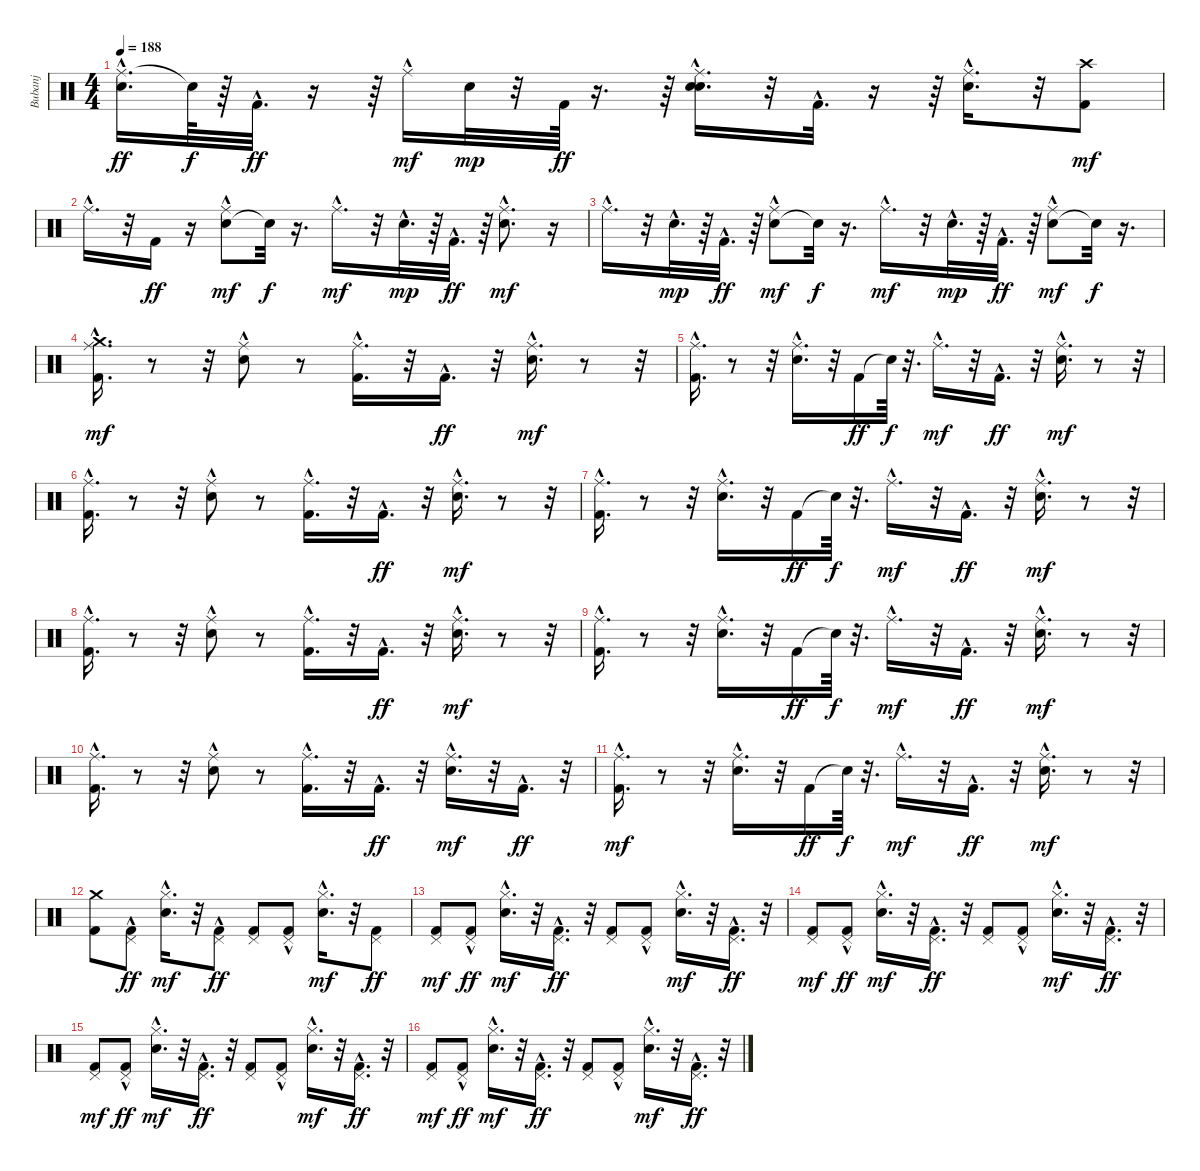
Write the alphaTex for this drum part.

\track ("Bubanj" "Bubanj") {instrument percussion}
\staff {score}
\articulation defaults
\ts (4 4)
\tempo 188
\clef neutral
\ks c
("Ride (middle)"{hac} "Electric Snare (hit)"{hac}).16{d dy ff} "Snare (hit)"{t}.64{dy f} r.64 "Kick (hit) 2"{hac}.32{d dy ff} r.16 r.64 "Ride (middle)"{hac}.16{dy mf} "Electric Snare (hit)".32{dy mp} r.32 "Kick (hit) 2".64{dy ff} r.16{d} r.64 ("Ride (middle)"{hac} "Electric Snare (hit)" "Electric Snare (hit)").16{d} r.32 "Kick (hit) 2"{hac}.32{d} r.16 r.64 ("Ride (middle)"{hac} "Electric Snare (hit)").16{d} r.32 ("Kick (hit) 2" "Crash high (hit)").8{dy mf} |
"Ride (middle)"{hac}.16{d} r.32 "Kick (hit) 2".16{dy ff} r.16 ("Electric Snare (hit)" "Ride (middle)"{hac}).8{dy mf} "Snare (hit)"{t}.32{dy f} r.16{d} "Ride (middle)"{hac}.16{d dy mf} r.32 "Electric Snare (hit)"{hac}.32{d dy mp} r.64 "Kick (hit) 2"{hac}.32{d dy ff} r.64 ("Electric Snare (hit)"{hac} "Ride (middle)"{hac}).8{d dy mf} r.16 |
"Ride (middle)"{hac}.16{d} r.32 "Electric Snare (hit)"{hac}.32{d dy mp} r.64 "Kick (hit) 2"{hac}.32{d dy ff} r.64 ("Electric Snare (hit)" "Ride (middle)"{hac}).8{dy mf} "Snare (hit)"{t}.32{dy f} r.16{d} "Ride (middle)"{hac}.16{d dy mf} r.32 "Electric Snare (hit)"{hac}.32{d dy mp} r.64 "Kick (hit) 2"{hac}.32{d dy ff} r.64 ("Electric Snare (hit)" "Ride (middle)"{hac}).8{dy mf} "Snare (hit)"{t}.32{dy f} r.16{d} |
("Kick (hit) 2"{hac} "Ride (middle)"{hac} "Crash medium (hit)"{hac}).16{d dy mf} r.8 r.32 ("Electric Snare (hit)" "Ride (middle)"{hac}).8 r.8 ("Kick (hit) 2" "Ride (middle)"{hac}).16{d} r.32 "Kick (hit) 2"{hac}.16{d dy ff} r.32 ("Electric Snare (hit)" "Ride (middle)"{hac}).16{d dy mf} r.8 r.32 |
("Kick (hit) 2"{hac} "Ride (middle)"{hac}).16{d} r.8 r.32 ("Electric Snare (hit)" "Ride (middle)"{hac}).16{d} r.32 "Kick (hit) 2".16{dy ff} "Snare (hit)"{t}.64{dy f} r.32{d} "Ride (middle)"{hac}.16{d dy mf} r.32 "Kick (hit) 2"{hac}.16{d dy ff} r.32 ("Electric Snare (hit)" "Ride (middle)"{hac}).16{d dy mf} r.8 r.32 |
("Kick (hit) 2"{hac} "Ride (middle)"{hac}).16{d} r.8 r.32 ("Electric Snare (hit)" "Ride (middle)"{hac}).8 r.8 ("Kick (hit) 2" "Ride (middle)"{hac}).16{d} r.32 "Kick (hit) 2"{hac}.16{d dy ff} r.32 ("Electric Snare (hit)" "Ride (middle)"{hac}).16{d dy mf} r.8 r.32 |
("Kick (hit) 2"{hac} "Ride (middle)"{hac}).16{d} r.8 r.32 ("Electric Snare (hit)" "Ride (middle)"{hac}).16{d} r.32 "Kick (hit) 2".16{dy ff} "Snare (hit)"{t}.64{dy f} r.32{d} "Ride (middle)"{hac}.16{d dy mf} r.32 "Kick (hit) 2"{hac}.16{d dy ff} r.32 ("Electric Snare (hit)" "Ride (middle)"{hac}).16{d dy mf} r.8 r.32 |
("Kick (hit) 2"{hac} "Ride (middle)"{hac}).16{d} r.8 r.32 ("Electric Snare (hit)" "Ride (middle)"{hac}).8 r.8 ("Kick (hit) 2" "Ride (middle)"{hac}).16{d} r.32 "Kick (hit) 2"{hac}.16{d dy ff} r.32 ("Electric Snare (hit)" "Ride (middle)"{hac}).16{d dy mf} r.8 r.32 |
("Kick (hit) 2"{hac} "Ride (middle)"{hac}).16{d} r.8 r.32 ("Electric Snare (hit)" "Ride (middle)"{hac}).16{d} r.32 "Kick (hit) 2".16{dy ff} "Snare (hit)"{t}.64{dy f} r.32{d} "Ride (middle)"{hac}.16{d dy mf} r.32 "Kick (hit) 2"{hac}.16{d dy ff} r.32 ("Electric Snare (hit)" "Ride (middle)"{hac}).16{d dy mf} r.8 r.32 |
("Kick (hit) 2"{hac} "Ride (middle)"{hac}).16{d} r.8 r.32 ("Electric Snare (hit)" "Ride (middle)"{hac}).8 r.8 ("Kick (hit) 2" "Ride (middle)"{hac}).16{d} r.32 "Kick (hit) 2"{hac}.16{d dy ff} r.32 ("Electric Snare (hit)" "Ride (middle)"{hac}).16{d dy mf} r.32 "Kick (hit) 2"{hac}.16{d dy ff} r.32 |
("Kick (hit) 2"{hac} "Ride (middle)"{hac}).16{d dy mf} r.8 r.32 ("Electric Snare (hit)" "Ride (middle)"{hac}).16{d} r.32 "Kick (hit) 2".16{dy ff} "Snare (hit)"{t}.64{dy f} r.32{d} "Ride (middle)"{hac}.16{d dy mf} r.32 "Kick (hit) 2"{hac}.16{d dy ff} r.32 ("Electric Snare (hit)" "Ride (middle)"{hac}).16{d dy mf} r.8 r.32 |
("Kick (hit) 2" "Crash medium (hit)").8 ("Pedal Hi-Hat (hit)"{hac} "Kick (hit) 2").8{dy ff} ("Electric Snare (hit)"{hac} "Hi-Hat (closed)").16{d dy mf} r.32 ("Pedal Hi-Hat (hit)"{hac} "Kick (hit) 2").8{dy ff} ("Pedal Hi-Hat (hit)" "Kick (hit) 2").8 ("Pedal Hi-Hat (hit)"{hac} "Kick (hit) 2").8 ("Electric Snare (hit)"{hac} "Hi-Hat (closed)").16{d dy mf} r.32 ("Pedal Hi-Hat (hit)" "Kick (hit) 2").8{dy ff} |
("Kick (hit) 2" "Pedal Hi-Hat (hit)").8{dy mf} ("Pedal Hi-Hat (hit)"{hac} "Kick (hit) 2").8{dy ff} ("Electric Snare (hit)"{hac} "Hi-Hat (closed)").16{d dy mf} r.32 ("Pedal Hi-Hat (hit)"{hac} "Kick (hit) 2"{hac}).16{d dy ff} r.32 ("Pedal Hi-Hat (hit)" "Kick (hit) 2").8 ("Pedal Hi-Hat (hit)"{hac} "Kick (hit) 2").8 ("Electric Snare (hit)"{hac} "Hi-Hat (closed)").16{d dy mf} r.32 ("Pedal Hi-Hat (hit)" "Kick (hit) 2"{hac}).16{d dy ff} r.32 |
("Kick (hit) 2" "Pedal Hi-Hat (hit)").8{dy mf} ("Pedal Hi-Hat (hit)"{hac} "Kick (hit) 2").8{dy ff} ("Electric Snare (hit)"{hac} "Hi-Hat (closed)").16{d dy mf} r.32 ("Pedal Hi-Hat (hit)"{hac} "Kick (hit) 2"{hac}).16{d dy ff} r.32 ("Pedal Hi-Hat (hit)" "Kick (hit) 2").8 ("Pedal Hi-Hat (hit)"{hac} "Kick (hit) 2").8 ("Electric Snare (hit)"{hac} "Hi-Hat (closed)").16{d dy mf} r.32 ("Pedal Hi-Hat (hit)" "Kick (hit) 2"{hac}).16{d dy ff} r.32 |
("Kick (hit) 2" "Pedal Hi-Hat (hit)").8{dy mf} ("Pedal Hi-Hat (hit)"{hac} "Kick (hit) 2").8{dy ff} ("Electric Snare (hit)"{hac} "Hi-Hat (closed)").16{d dy mf} r.32 ("Pedal Hi-Hat (hit)"{hac} "Kick (hit) 2"{hac}).16{d dy ff} r.32 ("Pedal Hi-Hat (hit)" "Kick (hit) 2").8 ("Pedal Hi-Hat (hit)"{hac} "Kick (hit) 2").8 ("Electric Snare (hit)"{hac} "Hi-Hat (closed)").16{d dy mf} r.32 ("Pedal Hi-Hat (hit)" "Kick (hit) 2"{hac}).16{d dy ff} r.32 |
("Kick (hit) 2" "Pedal Hi-Hat (hit)").8{dy mf} ("Pedal Hi-Hat (hit)"{hac} "Kick (hit) 2").8{dy ff} ("Electric Snare (hit)"{hac} "Hi-Hat (closed)").16{d dy mf} r.32 ("Pedal Hi-Hat (hit)"{hac} "Kick (hit) 2"{hac}).16{d dy ff} r.32 ("Pedal Hi-Hat (hit)" "Kick (hit) 2").8 ("Pedal Hi-Hat (hit)"{hac} "Kick (hit) 2").8 ("Electric Snare (hit)"{hac} "Hi-Hat (closed)").16{d dy mf} r.32 ("Pedal Hi-Hat (hit)" "Kick (hit) 2"{hac}).16{d dy ff} r.32
